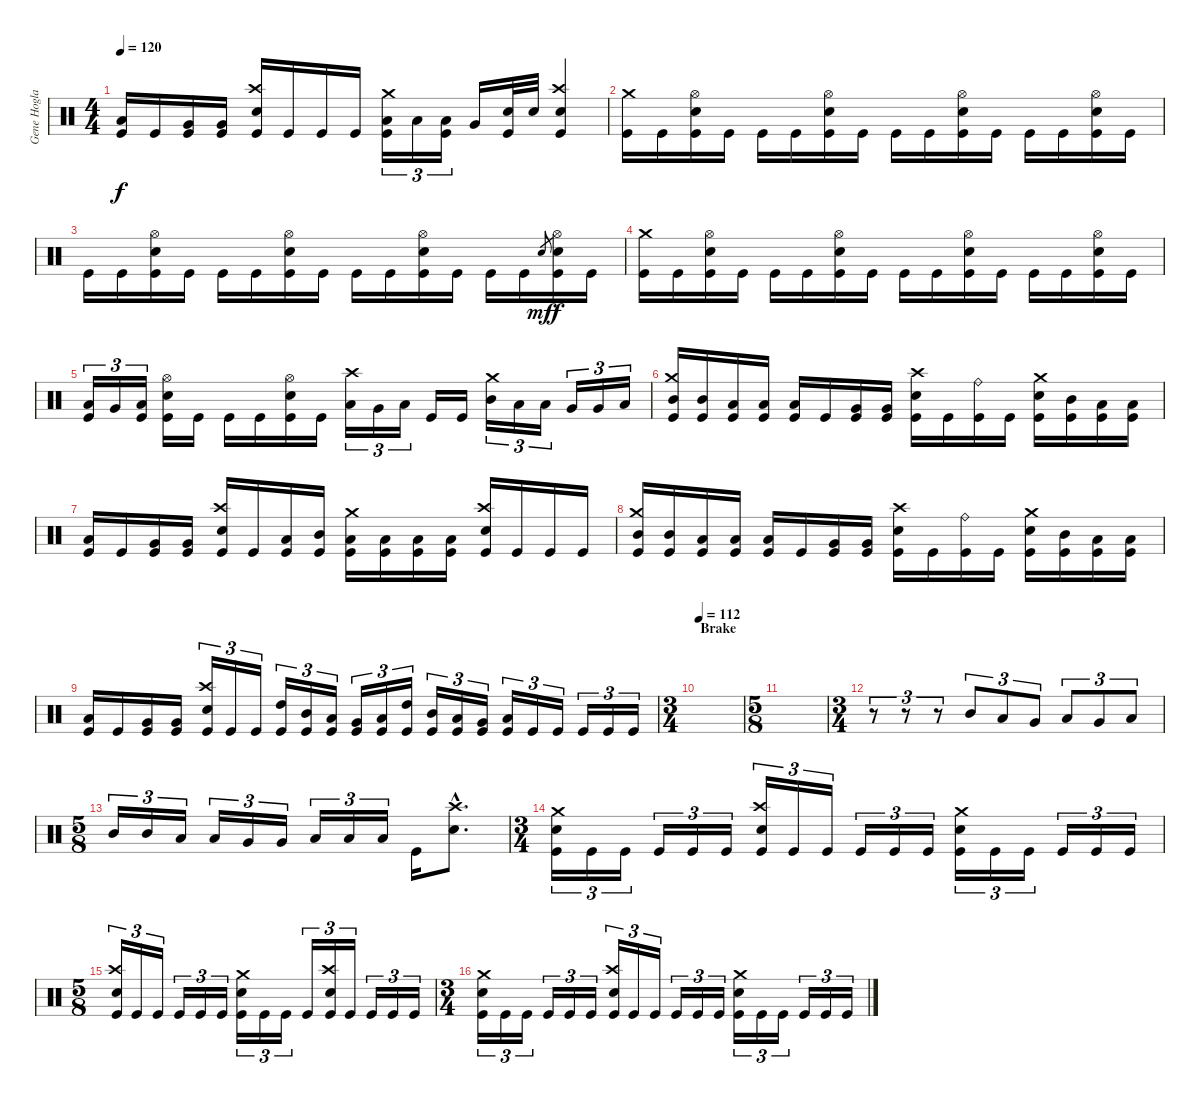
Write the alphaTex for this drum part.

\track ("Gene Hoglan" "Gene Hogla") {instrument percussion}
\staff {score}
\articulation defaults
\ts (4 4)
\tempo 120
\clef neutral
\ks c
("Low Tom (hit)" "Kick (hit)").16{dy f} "Kick (hit)".16 ("Very Low Tom (hit)" "Kick (hit)").16 ("Very Low Tom (hit)" "Kick (hit)").16 ("Crash high (hit)" "Electric Snare (hit)" "Kick (hit)").16 "Kick (hit)".16 "Kick (hit)".16 "Kick (hit)".16 ("Crash medium (hit)" "Low Tom (hit)" "Kick (hit)").16{tu (3 2)} "Low Tom (hit)".16{tu (3 2)} ("Low Tom (hit)" "Kick (hit)").16{tu (3 2)} "Very Low Tom (hit)".16 ("Electric Snare (hit)" "Kick (hit)").32 "Electric Snare (hit)".32 ("Crash high (hit)" "Electric Snare (hit)" "Kick (hit)").4 |
("Crash medium (hit)" "Kick (hit)").16 "Kick (hit)".16 ("Hi-Hat (open)" "Electric Snare (hit)" "Kick (hit)").16 "Kick (hit)".16 "Kick (hit)".16 "Kick (hit)".16 ("Hi-Hat (open)" "Electric Snare (hit)" "Kick (hit)").16 "Kick (hit)".16 "Kick (hit)".16 "Kick (hit)".16 ("Hi-Hat (open)" "Electric Snare (hit)" "Kick (hit)").16 "Kick (hit)".16 "Kick (hit)".16 "Kick (hit)".16 ("Hi-Hat (open)" "Electric Snare (hit)" "Kick (hit)").16 "Kick (hit)".16 |
"Kick (hit)".16 "Kick (hit)".16 ("Hi-Hat (open)" "Electric Snare (hit)" "Kick (hit)").16 "Kick (hit)".16 "Kick (hit)".16 "Kick (hit)".16 ("Hi-Hat (open)" "Electric Snare (hit)" "Kick (hit)").16 "Kick (hit)".16 "Kick (hit)".16 "Kick (hit)".16 ("Hi-Hat (open)" "Electric Snare (hit)" "Kick (hit)").16 "Kick (hit)".16 "Kick (hit)".16 "Kick (hit)".16 "Electric Snare (hit)".8{gr dy mf} ("Hi-Hat (open)" "Electric Snare (hit)" "Kick (hit)").16{dy f} "Kick (hit)".16 |
("Crash medium (hit)" "Kick (hit)").16 "Kick (hit)".16 ("Hi-Hat (open)" "Electric Snare (hit)" "Kick (hit)").16 "Kick (hit)".16 "Kick (hit)".16 "Kick (hit)".16 ("Hi-Hat (open)" "Electric Snare (hit)" "Kick (hit)").16 "Kick (hit)".16 "Kick (hit)".16 "Kick (hit)".16 ("Hi-Hat (open)" "Electric Snare (hit)" "Kick (hit)").16 "Kick (hit)".16 "Kick (hit)".16 "Kick (hit)".16 ("Hi-Hat (open)" "Electric Snare (hit)" "Kick (hit)").16 "Kick (hit)".16 |
("Low Tom (hit)" "Kick (hit)").16{tu (3 2)} "Very Low Tom (hit)".16{tu (3 2)} ("Low Floor Tom (hit)" "Kick (hit)").16{tu (3 2)} ("Hi-Hat (open)" "Electric Snare (hit)" "Kick (hit)").16 "Kick (hit)".16 "Kick (hit)".16 "Kick (hit)".16 ("Hi-Hat (open)" "Electric Snare (hit)" "Kick (hit)").16 "Kick (hit)".16 ("Crash high (hit)" "Low Tom (hit)").16{tu (3 2)} "Very Low Tom (hit)".16{tu (3 2)} "Low Floor Tom (hit)".16{tu (3 2)} "Kick (hit)".16 "Kick (hit)".16 ("Crash medium (hit)" "Mid Tom (hit)").16{tu (3 2)} "Low Tom (hit)".16{tu (3 2)} "Low Tom (hit)".16{tu (3 2)} "Very Low Tom (hit)".16{tu (3 2)} "Very Low Tom (hit)".16{tu (3 2)} "Low Floor Tom (hit)".16{tu (3 2)} |
("Crash medium (hit)" "Mid Tom (hit)" "Kick (hit)").16 ("Mid Tom (hit)" "Kick (hit)").16 ("Low Tom (hit)" "Kick (hit)").16 ("Low Tom (hit)" "Kick (hit)").16 ("Low Tom (hit)" "Kick (hit)").16 "Kick (hit)".16 ("Very Low Tom (hit)" "Kick (hit)").16 ("Very Low Tom (hit)" "Kick (hit)").16 ("Crash high (hit)" "Electric Snare (hit)" "Kick (hit)").16 "Kick (hit)".16 ("Ride (bell)" "Kick (hit)").16 "Kick (hit)".16 ("Crash medium (hit)" "Electric Snare (hit)" "Kick (hit)").16 ("Mid Tom (hit)" "Kick (hit)").16 ("Low Tom (hit)" "Kick (hit)").16 ("Low Tom (hit)" "Kick (hit)").16 |
("Low Tom (hit)" "Kick (hit)").16 "Kick (hit)".16 ("Very Low Tom (hit)" "Kick (hit)").16 ("Very Low Tom (hit)" "Kick (hit)").16 ("Crash high (hit)" "Electric Snare (hit)" "Kick (hit)").16 "Kick (hit)".16 ("Low Tom (hit)" "Kick (hit)").16 ("Mid Tom (hit)" "Kick (hit)").16 ("Crash medium (hit)" "Low Tom (hit)" "Kick (hit)").16 ("Low Tom (hit)" "Kick (hit)").16 ("Low Tom (hit)" "Kick (hit)").16 ("Low Tom (hit)" "Kick (hit)").16 ("Crash high (hit)" "Electric Snare (hit)" "Kick (hit)").16 "Kick (hit)".16 "Kick (hit)".16 "Kick (hit)".16 |
("Crash medium (hit)" "Mid Tom (hit)" "Kick (hit)").16 ("Mid Tom (hit)" "Kick (hit)").16 ("Low Tom (hit)" "Kick (hit)").16 ("Low Tom (hit)" "Kick (hit)").16 ("Low Tom (hit)" "Kick (hit)").16 "Kick (hit)".16 ("Very Low Tom (hit)" "Kick (hit)").16 ("Very Low Tom (hit)" "Kick (hit)").16 ("Crash high (hit)" "Electric Snare (hit)" "Kick (hit)").16 "Kick (hit)".16 ("Ride (bell)" "Kick (hit)").16 "Kick (hit)".16 ("Crash medium (hit)" "Electric Snare (hit)" "Kick (hit)").16 ("Mid Tom (hit)" "Kick (hit)").16 ("Low Tom (hit)" "Kick (hit)").16 ("Low Tom (hit)" "Kick (hit)").16 |
("Low Tom (hit)" "Kick (hit)").16 "Kick (hit)".16 ("Very Low Tom (hit)" "Kick (hit)").16 ("Very Low Tom (hit)" "Kick (hit)").16 ("Crash high (hit)" "Electric Snare (hit)" "Kick (hit)").16{tu (3 2)} "Kick (hit)".16{tu (3 2)} "Kick (hit)".16{tu (3 2)} ("High Tom (hit)" "Kick (hit)").16{tu (3 2)} ("Mid Tom (hit)" "Kick (hit)").16{tu (3 2)} ("Low Tom (hit)" "Kick (hit)").16{tu (3 2)} ("Very Low Tom (hit)" "Kick (hit)").16{tu (3 2)} ("Low Floor Tom (hit)" "Kick (hit)").16{tu (3 2)} ("High Tom (hit)" "Kick (hit)").16{tu (3 2)} ("Mid Tom (hit)" "Kick (hit)").16{tu (3 2)} ("Low Tom (hit)" "Kick (hit)").16{tu (3 2)} ("Very Low Tom (hit)" "Kick (hit)").16{tu (3 2)} ("Low Floor Tom (hit)" "Kick (hit)").16{tu (3 2)} "Kick (hit)".16{tu (3 2)} "Kick (hit)".16{tu (3 2)} "Kick (hit)".16{tu (3 2)} "Kick (hit)".16{tu (3 2)} "Kick (hit)".16{tu (3 2)} |
\ts (3 4)
\section ("" "Brake")
\tempo 112
|
\ts (5 8)
|
\ts (3 4)
r.8{tu (3 2) volume 16} r.8{tu (3 2)} r.8{tu (3 2)} "Mid Tom (hit)".8{tu (3 2)} "Low Tom (hit)".8{tu (3 2)} "Very Low Tom (hit)".8{tu (3 2)} "Low Floor Tom (hit)".8{tu (3 2)} "Very Low Tom (hit)".8{tu (3 2)} "Low Tom (hit)".8{tu (3 2)} |
\ts (5 8)
"Mid Tom (hit)".16{tu (3 2)} "Mid Tom (hit)".16{tu (3 2)} "Low Tom (hit)".16{tu (3 2)} "Low Tom (hit)".16{tu (3 2)} "Very Low Tom (hit)".16{tu (3 2)} "Very Low Tom (hit)".16{tu (3 2)} "Low Floor Tom (hit)".16{tu (3 2)} "Low Floor Tom (hit)".16{tu (3 2)} "Low Floor Tom (hit)".16{tu (3 2)} "Kick (hit)".16 ("Crash high (hit)"{hac} "Electric Snare (hit)"{hac}).8{d} |
\ts (3 4)
("Crash medium (hit)" "Electric Snare (hit)" "Kick (hit)").16{tu (3 2)} "Kick (hit)".16{tu (3 2)} "Kick (hit)".16{tu (3 2)} "Kick (hit)".16{tu (3 2)} "Kick (hit)".16{tu (3 2)} "Kick (hit)".16{tu (3 2)} ("Crash high (hit)" "Electric Snare (hit)" "Kick (hit)").16{tu (3 2)} "Kick (hit)".16{tu (3 2)} "Kick (hit)".16{tu (3 2)} "Kick (hit)".16{tu (3 2)} "Kick (hit)".16{tu (3 2)} "Kick (hit)".16{tu (3 2)} ("Crash medium (hit)" "Electric Snare (hit)" "Kick (hit)").16{tu (3 2)} "Kick (hit)".16{tu (3 2)} "Kick (hit)".16{tu (3 2)} "Kick (hit)".16{tu (3 2)} "Kick (hit)".16{tu (3 2)} "Kick (hit)".16{tu (3 2)} |
\ts (5 8)
("Crash high (hit)" "Electric Snare (hit)" "Kick (hit)").16{tu (3 2)} "Kick (hit)".16{tu (3 2)} "Kick (hit)".16{tu (3 2)} "Kick (hit)".16{tu (3 2)} "Kick (hit)".16{tu (3 2)} "Kick (hit)".16{tu (3 2)} ("Crash medium (hit)" "Electric Snare (hit)" "Kick (hit)").16{tu (3 2)} "Kick (hit)".16{tu (3 2)} "Kick (hit)".16{tu (3 2)} "Kick (hit)".16{tu (3 2)} ("Crash high (hit)" "Electric Snare (hit)" "Kick (hit)").16{tu (3 2)} "Kick (hit)".16{tu (3 2)} "Kick (hit)".16{tu (3 2)} "Kick (hit)".16{tu (3 2)} "Kick (hit)".16{tu (3 2)} |
\ts (3 4)
("Crash medium (hit)" "Electric Snare (hit)" "Kick (hit)").16{tu (3 2)} "Kick (hit)".16{tu (3 2)} "Kick (hit)".16{tu (3 2)} "Kick (hit)".16{tu (3 2)} "Kick (hit)".16{tu (3 2)} "Kick (hit)".16{tu (3 2)} ("Crash high (hit)" "Electric Snare (hit)" "Kick (hit)").16{tu (3 2)} "Kick (hit)".16{tu (3 2)} "Kick (hit)".16{tu (3 2)} "Kick (hit)".16{tu (3 2)} "Kick (hit)".16{tu (3 2)} "Kick (hit)".16{tu (3 2)} ("Crash medium (hit)" "Electric Snare (hit)" "Kick (hit)").16{tu (3 2)} "Kick (hit)".16{tu (3 2)} "Kick (hit)".16{tu (3 2)} "Kick (hit)".16{tu (3 2)} "Kick (hit)".16{tu (3 2)} "Kick (hit)".16{tu (3 2)}
